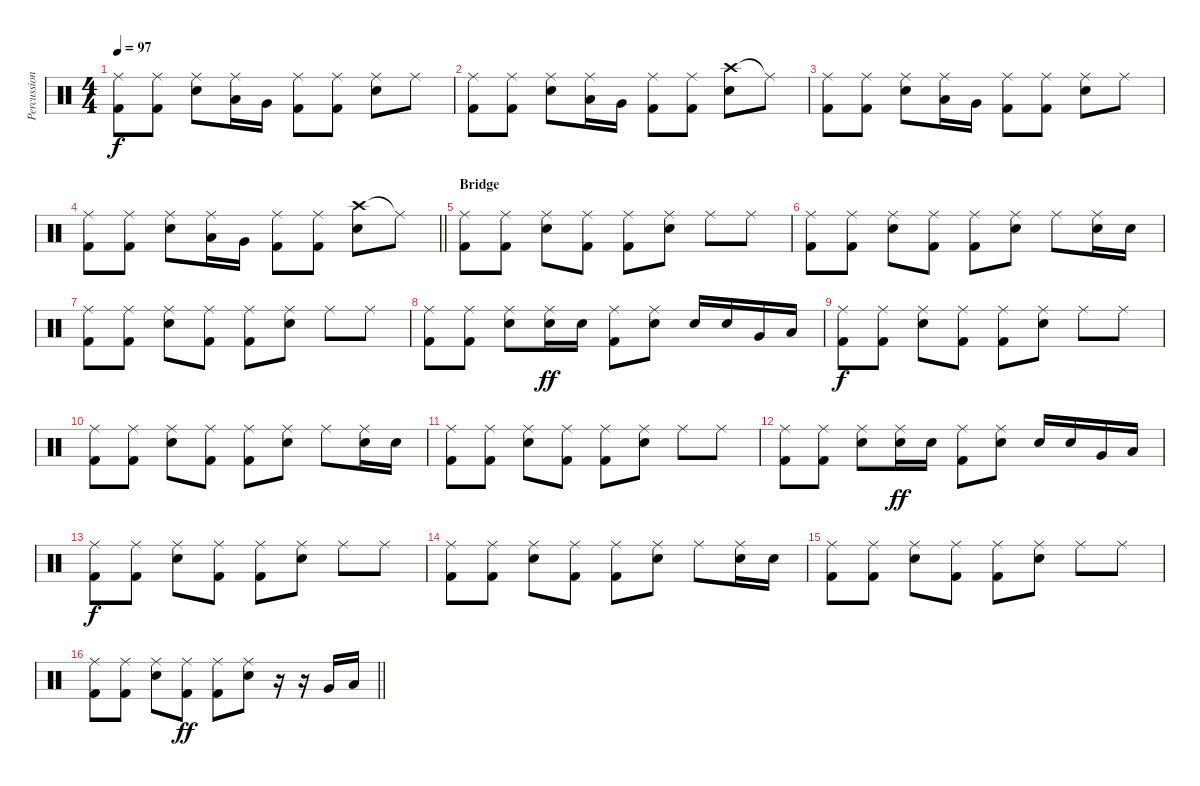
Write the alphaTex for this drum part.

\track ("Percussion" "Percussion") {instrument percussion}
\staff {score}
\articulation defaults
\ts (4 4)
\tempo 97
\clef neutral
\ks c
("Ride (middle)" "Kick (hit) 2").8{dy f} ("Ride (middle)" "Kick (hit) 2").8 ("Ride (middle)" "Snare (hit) 2").8 ("Ride (middle)" "Low Floor Tom (hit)").16 "Very Low Tom (hit)".16 ("Ride (middle)" "Kick (hit) 2").8 ("Ride (middle)" "Kick (hit) 2").8 ("Ride (middle)" "Snare (hit) 2").8 "Ride (middle)".8 |
("Ride (middle)" "Kick (hit) 2").8 ("Ride (middle)" "Kick (hit) 2").8 ("Ride (middle)" "Snare (hit) 2").8 ("Ride (middle)" "Low Floor Tom (hit)").16 "Very Low Tom (hit)".16 ("Ride (middle)" "Kick (hit) 2").8 ("Ride (middle)" "Kick (hit) 2").8 ("Crash high (hit)" "Snare (hit) 2").8 "Ride (middle)"{t}.8 |
("Ride (middle)" "Kick (hit) 2").8 ("Ride (middle)" "Kick (hit) 2").8 ("Ride (middle)" "Snare (hit) 2").8 ("Ride (middle)" "Low Floor Tom (hit)").16 "Very Low Tom (hit)".16 ("Ride (middle)" "Kick (hit) 2").8 ("Ride (middle)" "Kick (hit) 2").8 ("Ride (middle)" "Snare (hit) 2").8 "Ride (middle)".8 |
\barLineRight lightlight
("Ride (middle)" "Kick (hit) 2").8 ("Ride (middle)" "Kick (hit) 2").8 ("Ride (middle)" "Snare (hit) 2").8 ("Ride (middle)" "Low Floor Tom (hit)").16 "Very Low Tom (hit)".16 ("Ride (middle)" "Kick (hit) 2").8 ("Ride (middle)" "Kick (hit) 2").8 ("Crash high (hit)" "Snare (hit) 2").8 "Ride (middle)"{t}.8 |
\section ("" "Bridge")
("Ride (middle)" "Kick (hit) 2").8 ("Ride (middle)" "Kick (hit) 2").8 ("Ride (middle)" "Snare (hit) 2").8 ("Ride (middle)" "Kick (hit) 2").8 ("Ride (middle)" "Kick (hit) 2").8 ("Ride (middle)" "Snare (hit) 2").8 "Ride (middle)".8 "Ride (middle)".8 |
("Ride (middle)" "Kick (hit) 2").8 ("Ride (middle)" "Kick (hit) 2").8 ("Ride (middle)" "Snare (hit) 2").8 ("Ride (middle)" "Kick (hit) 2").8 ("Ride (middle)" "Kick (hit) 2").8 ("Ride (middle)" "Snare (hit) 2").8 "Ride (middle)".8 ("Ride (middle)" "Snare (hit) 2").16 "Snare (hit) 2".16 |
("Ride (middle)" "Kick (hit) 2").8 ("Ride (middle)" "Kick (hit) 2").8 ("Ride (middle)" "Snare (hit) 2").8 ("Ride (middle)" "Kick (hit) 2").8 ("Ride (middle)" "Kick (hit) 2").8 ("Ride (middle)" "Snare (hit) 2").8 "Ride (middle)".8 "Ride (middle)".8 |
("Ride (middle)" "Kick (hit) 2").8 ("Ride (middle)" "Kick (hit) 2").8 ("Ride (middle)" "Snare (hit) 2").8 ("Ride (middle)" "Snare (hit) 2").16{dy ff} "Snare (hit) 2".16 ("Ride (middle)" "Kick (hit) 2").8 ("Ride (middle)" "Snare (hit) 2").8 "Snare (hit) 2".16 "Snare (hit) 2".16 "Very Low Tom (hit)".16 "Low Floor Tom (hit)".16 |
("Ride (middle)" "Kick (hit) 2").8{dy f} ("Ride (middle)" "Kick (hit) 2").8 ("Ride (middle)" "Snare (hit) 2").8 ("Ride (middle)" "Kick (hit) 2").8 ("Ride (middle)" "Kick (hit) 2").8 ("Ride (middle)" "Snare (hit) 2").8 "Ride (middle)".8 "Ride (middle)".8 |
("Ride (middle)" "Kick (hit) 2").8 ("Ride (middle)" "Kick (hit) 2").8 ("Ride (middle)" "Snare (hit) 2").8 ("Ride (middle)" "Kick (hit) 2").8 ("Ride (middle)" "Kick (hit) 2").8 ("Ride (middle)" "Snare (hit) 2").8 "Ride (middle)".8 ("Ride (middle)" "Snare (hit) 2").16 "Snare (hit) 2".16 |
("Ride (middle)" "Kick (hit) 2").8 ("Ride (middle)" "Kick (hit) 2").8 ("Ride (middle)" "Snare (hit) 2").8 ("Ride (middle)" "Kick (hit) 2").8 ("Ride (middle)" "Kick (hit) 2").8 ("Ride (middle)" "Snare (hit) 2").8 "Ride (middle)".8 "Ride (middle)".8 |
("Ride (middle)" "Kick (hit) 2").8 ("Ride (middle)" "Kick (hit) 2").8 ("Ride (middle)" "Snare (hit) 2").8 ("Ride (middle)" "Snare (hit) 2").16{dy ff} "Snare (hit) 2".16 ("Ride (middle)" "Kick (hit) 2").8 ("Ride (middle)" "Snare (hit) 2").8 "Snare (hit) 2".16 "Snare (hit) 2".16 "Very Low Tom (hit)".16 "Low Floor Tom (hit)".16 |
("Ride (middle)" "Kick (hit) 2").8{dy f} ("Ride (middle)" "Kick (hit) 2").8 ("Ride (middle)" "Snare (hit) 2").8 ("Ride (middle)" "Kick (hit) 2").8 ("Ride (middle)" "Kick (hit) 2").8 ("Ride (middle)" "Snare (hit) 2").8 "Ride (middle)".8 "Ride (middle)".8 |
("Ride (middle)" "Kick (hit) 2").8 ("Ride (middle)" "Kick (hit) 2").8 ("Ride (middle)" "Snare (hit) 2").8 ("Ride (middle)" "Kick (hit) 2").8 ("Ride (middle)" "Kick (hit) 2").8 ("Ride (middle)" "Snare (hit) 2").8 "Ride (middle)".8 ("Ride (middle)" "Snare (hit) 2").16 "Snare (hit) 2".16 |
("Ride (middle)" "Kick (hit) 2").8 ("Ride (middle)" "Kick (hit) 2").8 ("Ride (middle)" "Snare (hit) 2").8 ("Ride (middle)" "Kick (hit) 2").8 ("Ride (middle)" "Kick (hit) 2").8 ("Ride (middle)" "Snare (hit) 2").8 "Ride (middle)".8 "Ride (middle)".8 |
\barLineRight lightlight
("Ride (middle)" "Kick (hit) 2").8 ("Ride (middle)" "Kick (hit) 2").8 ("Ride (middle)" "Snare (hit) 2").8 ("Ride (middle)" "Kick (hit) 2").8{dy ff} ("Ride (middle)" "Kick (hit) 2").8 ("Ride (middle)" "Snare (hit) 2").8 r.16 r.16 "Very Low Tom (hit)".16 "Low Floor Tom (hit)".16
